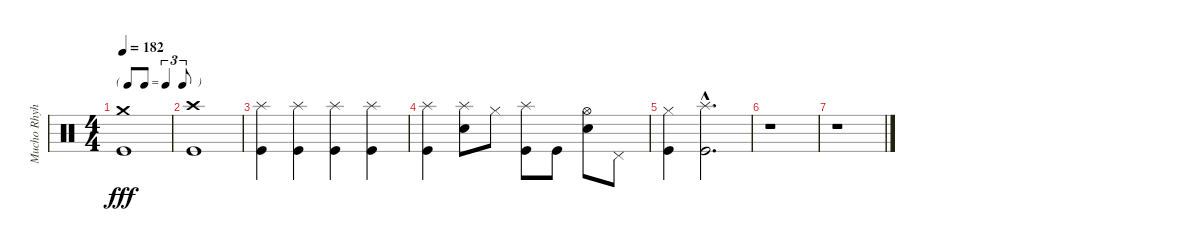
\track ("Mucho Rhyhtm" "Mucho Rhyh") {instrument percussion}
\staff {score}
\articulation defaults
\ts (4 4)
\tf triplet8th
\tempo 182
\clef neutral
\ks c
("Crash medium (hit)" "Kick (hit)").1{dy fff} |
("Crash high (hit)" "Kick (hit)").1 |
("Splash (hit)" "Kick (hit)").4 ("Splash (hit)" "Kick (hit)").4 ("Splash (hit)" "Kick (hit)").4 ("Splash (hit)" "Kick (hit)").4 |
("Splash (hit)" "Kick (hit)").4 ("Splash (hit)" "Snare (hit) 2").8 "Hi-Hat (closed)".8 ("Splash (hit)" "Kick (hit)").8 "Kick (hit)".8 ("Hi-Hat (open)" "Snare (hit) 2").8 "Pedal Hi-Hat (hit)".8 |
("Hi-Hat (closed)" "Kick (hit)").4 ("Splash (hit)"{hac} "Kick (hit)"{hac}).2{d} |
r.1 |
r.1
